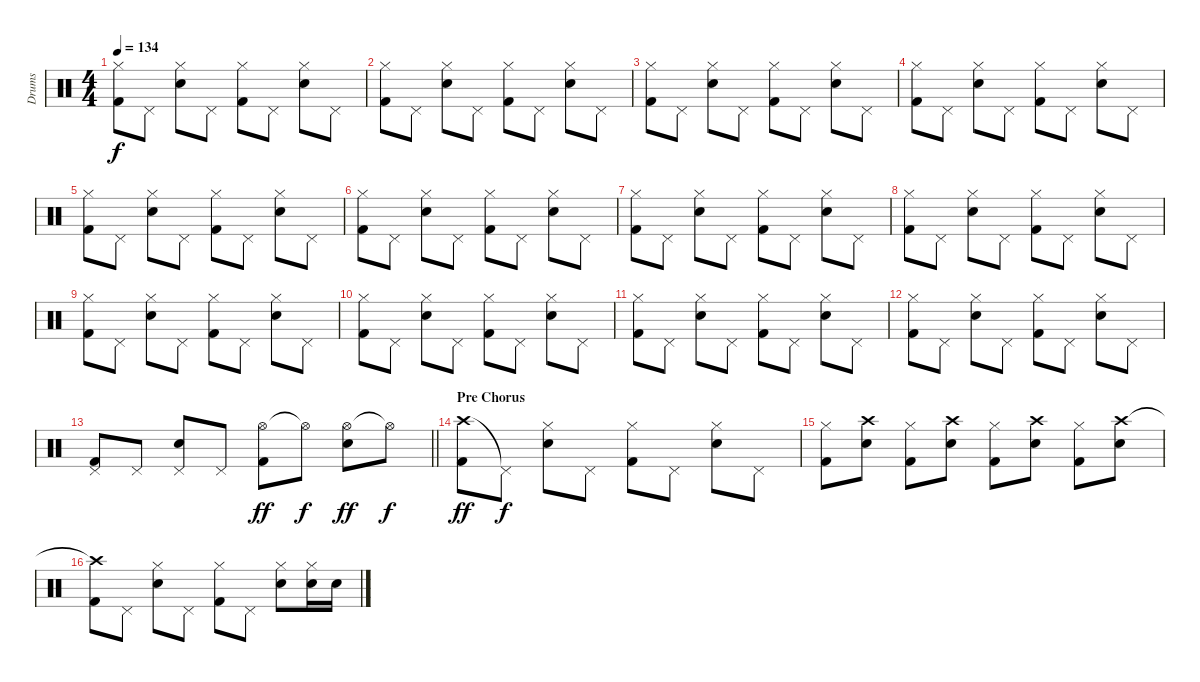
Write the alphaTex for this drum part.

\track ("Drums" "Drums") {instrument percussion}
\staff {score}
\articulation defaults
\ts (4 4)
\tempo 134
\clef neutral
\ks c
("Hi-Hat (closed)" "Kick (hit) 2").8{dy f} "Pedal Hi-Hat (hit)".8 ("Hi-Hat (closed)" "Snare (hit) 2").8 "Pedal Hi-Hat (hit)".8 ("Hi-Hat (closed)" "Kick (hit) 2").8 "Pedal Hi-Hat (hit)".8 ("Hi-Hat (closed)" "Snare (hit) 2").8 "Pedal Hi-Hat (hit)".8 |
("Hi-Hat (closed)" "Kick (hit) 2").8 "Pedal Hi-Hat (hit)".8 ("Hi-Hat (closed)" "Snare (hit) 2").8 "Pedal Hi-Hat (hit)".8 ("Hi-Hat (closed)" "Kick (hit) 2").8 "Pedal Hi-Hat (hit)".8 ("Hi-Hat (closed)" "Snare (hit) 2").8 "Pedal Hi-Hat (hit)".8 |
("Hi-Hat (closed)" "Kick (hit) 2").8 "Pedal Hi-Hat (hit)".8 ("Hi-Hat (closed)" "Snare (hit) 2").8 "Pedal Hi-Hat (hit)".8 ("Hi-Hat (closed)" "Kick (hit) 2").8 "Pedal Hi-Hat (hit)".8 ("Hi-Hat (closed)" "Snare (hit) 2").8 "Pedal Hi-Hat (hit)".8 |
("Hi-Hat (closed)" "Kick (hit) 2").8 "Pedal Hi-Hat (hit)".8 ("Hi-Hat (closed)" "Snare (hit) 2").8 "Pedal Hi-Hat (hit)".8 ("Hi-Hat (closed)" "Kick (hit) 2").8 "Pedal Hi-Hat (hit)".8 ("Hi-Hat (closed)" "Snare (hit) 2").8 "Pedal Hi-Hat (hit)".8 |
("Hi-Hat (closed)" "Kick (hit) 2").8 "Pedal Hi-Hat (hit)".8 ("Hi-Hat (closed)" "Snare (hit) 2").8 "Pedal Hi-Hat (hit)".8 ("Hi-Hat (closed)" "Kick (hit) 2").8 "Pedal Hi-Hat (hit)".8 ("Hi-Hat (closed)" "Snare (hit) 2").8 "Pedal Hi-Hat (hit)".8 |
("Hi-Hat (closed)" "Kick (hit) 2").8 "Pedal Hi-Hat (hit)".8 ("Hi-Hat (closed)" "Snare (hit) 2").8 "Pedal Hi-Hat (hit)".8 ("Hi-Hat (closed)" "Kick (hit) 2").8 "Pedal Hi-Hat (hit)".8 ("Hi-Hat (closed)" "Snare (hit) 2").8 "Pedal Hi-Hat (hit)".8 |
("Hi-Hat (closed)" "Kick (hit) 2").8 "Pedal Hi-Hat (hit)".8 ("Hi-Hat (closed)" "Snare (hit) 2").8 "Pedal Hi-Hat (hit)".8 ("Hi-Hat (closed)" "Kick (hit) 2").8 "Pedal Hi-Hat (hit)".8 ("Hi-Hat (closed)" "Snare (hit) 2").8 "Pedal Hi-Hat (hit)".8 |
("Hi-Hat (closed)" "Kick (hit) 2").8 "Pedal Hi-Hat (hit)".8 ("Hi-Hat (closed)" "Snare (hit) 2").8 "Pedal Hi-Hat (hit)".8 ("Hi-Hat (closed)" "Kick (hit) 2").8 "Pedal Hi-Hat (hit)".8 ("Hi-Hat (closed)" "Snare (hit) 2").8 "Pedal Hi-Hat (hit)".8 |
("Hi-Hat (closed)" "Kick (hit) 2").8 "Pedal Hi-Hat (hit)".8 ("Hi-Hat (closed)" "Snare (hit) 2").8 "Pedal Hi-Hat (hit)".8 ("Hi-Hat (closed)" "Kick (hit) 2").8 "Pedal Hi-Hat (hit)".8 ("Hi-Hat (closed)" "Snare (hit) 2").8 "Pedal Hi-Hat (hit)".8 |
("Hi-Hat (closed)" "Kick (hit) 2").8 "Pedal Hi-Hat (hit)".8 ("Hi-Hat (closed)" "Snare (hit) 2").8 "Pedal Hi-Hat (hit)".8 ("Hi-Hat (closed)" "Kick (hit) 2").8 "Pedal Hi-Hat (hit)".8 ("Hi-Hat (closed)" "Snare (hit) 2").8 "Pedal Hi-Hat (hit)".8 |
("Hi-Hat (closed)" "Kick (hit) 2").8 "Pedal Hi-Hat (hit)".8 ("Hi-Hat (closed)" "Snare (hit) 2").8 "Pedal Hi-Hat (hit)".8 ("Hi-Hat (closed)" "Kick (hit) 2").8 "Pedal Hi-Hat (hit)".8 ("Hi-Hat (closed)" "Snare (hit) 2").8 "Pedal Hi-Hat (hit)".8 |
("Hi-Hat (closed)" "Kick (hit) 2").8 "Pedal Hi-Hat (hit)".8 ("Hi-Hat (closed)" "Snare (hit) 2").8 "Pedal Hi-Hat (hit)".8 ("Hi-Hat (closed)" "Kick (hit) 2").8 "Pedal Hi-Hat (hit)".8 ("Hi-Hat (closed)" "Snare (hit) 2").8 "Pedal Hi-Hat (hit)".8 |
\barLineRight lightlight
("Pedal Hi-Hat (hit)" "Kick (hit) 2").8 "Pedal Hi-Hat (hit)".8 ("Pedal Hi-Hat (hit)" "Snare (hit) 2").8 "Pedal Hi-Hat (hit)".8 ("Hi-Hat (open)" "Kick (hit) 2").8{dy ff} "Hi-Hat (open)"{t}.8{dy f} ("Hi-Hat (open)" "Snare (hit) 2").8{dy ff} "Hi-Hat (open)"{t}.8{dy f} |
\section ("" "Pre Chorus")
("Crash high (hit)" "Kick (hit) 2").8{dy ff} "Pedal Hi-Hat (hit)"{t}.8{dy f} ("Hi-Hat (closed)" "Snare (hit) 2").8 "Pedal Hi-Hat (hit)".8 ("Hi-Hat (closed)" "Kick (hit) 2").8 "Pedal Hi-Hat (hit)".8 ("Hi-Hat (closed)" "Snare (hit) 2").8 "Pedal Hi-Hat (hit)".8 |
("Hi-Hat (closed)" "Kick (hit) 2").8 ("Crash high (hit)" "Snare (hit) 2").8 ("Hi-Hat (closed)" "Kick (hit) 2").8 ("Crash high (hit)" "Snare (hit) 2").8 ("Hi-Hat (closed)" "Kick (hit) 2").8 ("Crash high (hit)" "Snare (hit) 2").8 ("Hi-Hat (closed)" "Kick (hit) 2").8 ("Crash high (hit)" "Snare (hit) 2").8 |
("Crash high (hit)"{t} "Kick (hit) 2").8 "Pedal Hi-Hat (hit)".8 ("Hi-Hat (closed)" "Snare (hit) 2").8 "Pedal Hi-Hat (hit)".8 ("Hi-Hat (closed)" "Kick (hit) 2").8 "Pedal Hi-Hat (hit)".8 ("Hi-Hat (closed)" "Snare (hit) 2").8 ("Hi-Hat (closed)" "Snare (hit) 2").16 "Snare (hit) 2".16
